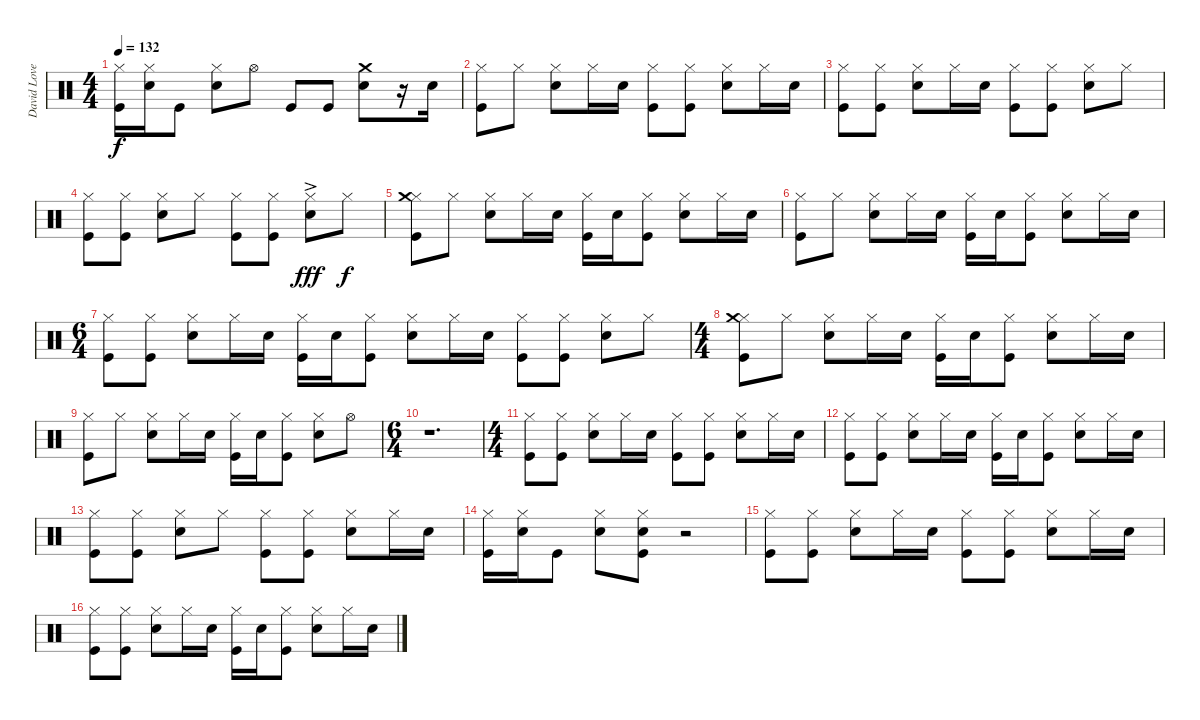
\track ("David Lovering" "David Love") {instrument percussion}
\staff {score}
\articulation defaults
\ts (4 4)
\tempo 132
\clef neutral
\ks c
("Hi-Hat (closed)" "Kick (hit)").16{dy f} ("Hi-Hat (closed)" "Snare (hit) 2").16 "Kick (hit)".8 ("Hi-Hat (closed)" "Snare (hit) 2").8 "Hi-Hat (open)".8 "Kick (hit)".8 "Kick (hit)".8 ("Crash medium (hit)" "Snare (hit) 2").8 r.16 "Snare (hit) 2".16 |
\section ("" "")
("Hi-Hat (closed)" "Kick (hit)").8 "Hi-Hat (closed)".8 ("Hi-Hat (closed)" "Snare (hit) 2").8 "Hi-Hat (closed)".16 "Snare (hit) 2".16 ("Hi-Hat (closed)" "Kick (hit)").8 ("Hi-Hat (closed)" "Kick (hit)").8 ("Hi-Hat (closed)" "Snare (hit) 2").8 "Hi-Hat (closed)".16 "Snare (hit) 2".16 |
("Hi-Hat (closed)" "Kick (hit)").8 ("Hi-Hat (closed)" "Kick (hit)").8 ("Hi-Hat (closed)" "Snare (hit) 2").8 "Hi-Hat (closed)".16 "Snare (hit) 2".16 ("Hi-Hat (closed)" "Kick (hit)").8 ("Hi-Hat (closed)" "Kick (hit)").8 ("Hi-Hat (closed)" "Snare (hit) 2").8 "Hi-Hat (closed)".8 |
("Hi-Hat (closed)" "Kick (hit)").8 ("Hi-Hat (closed)" "Kick (hit)").8 ("Hi-Hat (closed)" "Snare (hit) 2").8 "Hi-Hat (closed)".8 ("Hi-Hat (closed)" "Kick (hit)").8 ("Hi-Hat (closed)" "Kick (hit)").8 ("Hi-Hat (closed)" "Snare (hit) 2"{ac}).8{dy fff} "Hi-Hat (closed)".8{dy f} |
("Hi-Hat (closed)" "Crash medium (hit)" "Kick (hit)").8 "Hi-Hat (closed)".8 ("Hi-Hat (closed)" "Snare (hit) 2").8 "Hi-Hat (closed)".16 "Snare (hit) 2".16 ("Hi-Hat (closed)" "Kick (hit)").16 "Snare (hit) 2".16 ("Hi-Hat (closed)" "Kick (hit)").8 ("Hi-Hat (closed)" "Snare (hit) 2").8 "Hi-Hat (closed)".16 "Snare (hit) 2".16 |
("Hi-Hat (closed)" "Kick (hit)").8 "Hi-Hat (closed)".8 ("Hi-Hat (closed)" "Snare (hit) 2").8 "Hi-Hat (closed)".16 "Snare (hit) 2".16 ("Hi-Hat (closed)" "Kick (hit)").16 "Snare (hit) 2".16 ("Hi-Hat (closed)" "Kick (hit)").8 ("Hi-Hat (closed)" "Snare (hit) 2").8 "Hi-Hat (closed)".16 "Snare (hit) 2".16 |
\ts (6 4)
("Hi-Hat (closed)" "Kick (hit)").8 ("Hi-Hat (closed)" "Kick (hit)").8 ("Hi-Hat (closed)" "Snare (hit) 2").8 "Hi-Hat (closed)".16 "Snare (hit) 2".16 ("Hi-Hat (closed)" "Kick (hit)").16 "Snare (hit) 2".16 ("Hi-Hat (closed)" "Kick (hit)").8 ("Hi-Hat (closed)" "Snare (hit) 2").8 "Hi-Hat (closed)".16 "Snare (hit) 2".16 ("Hi-Hat (closed)" "Kick (hit)").8 ("Hi-Hat (closed)" "Kick (hit)").8 ("Hi-Hat (closed)" "Snare (hit) 2").8 "Hi-Hat (closed)".8 |
\ts (4 4)
("Hi-Hat (closed)" "Crash medium (hit)" "Kick (hit)").8 "Hi-Hat (closed)".8 ("Hi-Hat (closed)" "Snare (hit) 2").8 "Hi-Hat (closed)".16 "Snare (hit) 2".16 ("Hi-Hat (closed)" "Kick (hit)").16 "Snare (hit) 2".16 ("Hi-Hat (closed)" "Kick (hit)").8 ("Hi-Hat (closed)" "Snare (hit) 2").8 "Hi-Hat (closed)".16 "Snare (hit) 2".16 |
("Hi-Hat (closed)" "Kick (hit)").8 "Hi-Hat (closed)".8 ("Hi-Hat (closed)" "Snare (hit) 2").8 "Hi-Hat (closed)".16 "Snare (hit) 2".16 ("Hi-Hat (closed)" "Kick (hit)").16 "Snare (hit) 2".16 ("Hi-Hat (closed)" "Kick (hit)").8 ("Hi-Hat (closed)" "Snare (hit) 2").8 "Hi-Hat (open)".8 |
\ts (6 4)
r.1{d} |
\ts (4 4)
\section ("" "")
("Hi-Hat (closed)" "Kick (hit)").8 ("Hi-Hat (closed)" "Kick (hit)").8 ("Hi-Hat (closed)" "Snare (hit) 2").8 "Hi-Hat (closed)".16 "Snare (hit) 2".16 ("Hi-Hat (closed)" "Kick (hit)").8 ("Hi-Hat (closed)" "Kick (hit)").8 ("Hi-Hat (closed)" "Snare (hit) 2").8 "Hi-Hat (closed)".16 "Snare (hit) 2".16 |
("Hi-Hat (closed)" "Kick (hit)").8 ("Hi-Hat (closed)" "Kick (hit)").8 ("Hi-Hat (closed)" "Snare (hit) 2").8 "Hi-Hat (closed)".16 "Snare (hit) 2".16 ("Hi-Hat (closed)" "Kick (hit)").16 "Snare (hit) 2".16 ("Hi-Hat (closed)" "Kick (hit)").8 ("Hi-Hat (closed)" "Snare (hit) 2").8 "Hi-Hat (closed)".16 "Snare (hit) 2".16 |
("Hi-Hat (closed)" "Kick (hit)").8 ("Hi-Hat (closed)" "Kick (hit)").8 ("Hi-Hat (closed)" "Snare (hit) 2").8 "Hi-Hat (closed)".8 ("Hi-Hat (closed)" "Kick (hit)").8 ("Hi-Hat (closed)" "Kick (hit)").8 ("Hi-Hat (closed)" "Snare (hit) 2").8 "Hi-Hat (closed)".16 "Snare (hit) 2".16 |
("Hi-Hat (closed)" "Kick (hit)").16 ("Hi-Hat (closed)" "Snare (hit) 2").16 "Kick (hit)".8 ("Hi-Hat (closed)" "Snare (hit) 2").8 ("Hi-Hat (closed)" "Snare (hit) 2" "Kick (hit)").8 r.2 |
("Hi-Hat (closed)" "Kick (hit)").8 ("Hi-Hat (closed)" "Kick (hit)").8 ("Hi-Hat (closed)" "Snare (hit) 2").8 "Hi-Hat (closed)".16 "Snare (hit) 2".16 ("Hi-Hat (closed)" "Kick (hit)").8 ("Hi-Hat (closed)" "Kick (hit)").8 ("Hi-Hat (closed)" "Snare (hit) 2").8 "Hi-Hat (closed)".16 "Snare (hit) 2".16 |
("Hi-Hat (closed)" "Kick (hit)").8 ("Hi-Hat (closed)" "Kick (hit)").8 ("Hi-Hat (closed)" "Snare (hit) 2").8 "Hi-Hat (closed)".16 "Snare (hit) 2".16 ("Hi-Hat (closed)" "Kick (hit)").16 "Snare (hit) 2".16 ("Hi-Hat (closed)" "Kick (hit)").8 ("Hi-Hat (closed)" "Snare (hit) 2").8 "Hi-Hat (closed)".16 "Snare (hit) 2".16
